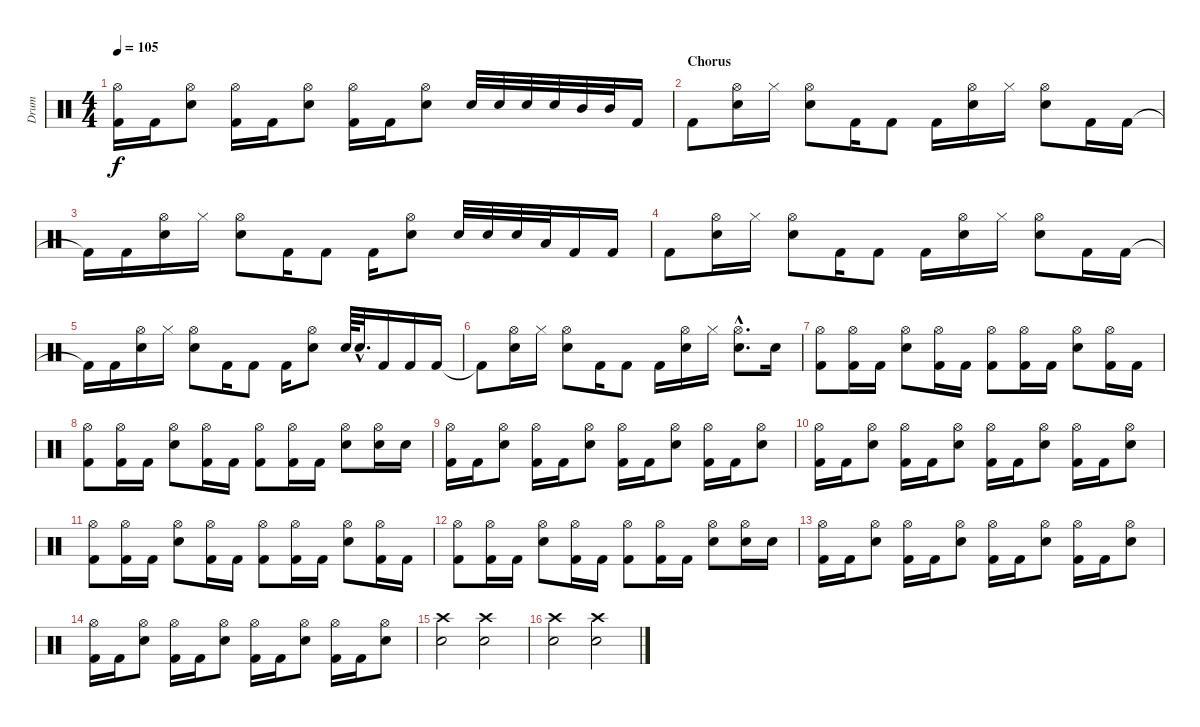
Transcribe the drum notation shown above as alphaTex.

\track ("Drum" "Drum") {instrument percussion}
\staff {score}
\articulation defaults
\ts (4 4)
\tempo 105
\clef neutral
\ks c
("Hi-Hat (open)" "Kick (hit) 2").16{dy f} "Kick (hit) 2".16 ("Hi-Hat (open)" "Electric Snare (hit)").8 ("Hi-Hat (open)" "Kick (hit) 2").16 "Kick (hit) 2".16 ("Hi-Hat (open)" "Electric Snare (hit)").8 ("Hi-Hat (open)" "Kick (hit) 2").16 "Kick (hit) 2".16 ("Hi-Hat (open)" "Electric Snare (hit)").8 "Electric Snare (hit)".32 "Electric Snare (hit)".32 "Electric Snare (hit)".32 "Electric Snare (hit)".32 "Mid Tom (hit)".32 "Mid Tom (hit)".32 "Kick (hit) 2".16 |
\section ("" "Chorus")
"Kick (hit) 2".8 ("Hi-Hat (open)" "Electric Snare (hit)").16 "Hi-Hat (closed)".16 ("Hi-Hat (open)" "Electric Snare (hit)").8 "Kick (hit) 2".16 "Kick (hit) 2".8 "Kick (hit) 2".16 ("Hi-Hat (open)" "Electric Snare (hit)").16 "Hi-Hat (closed)".16 ("Hi-Hat (open)" "Electric Snare (hit)").8 "Kick (hit) 2".16 "Kick (hit) 2".16 |
"Kick (hit) 2"{t}.16 "Kick (hit) 2".16 ("Hi-Hat (open)" "Electric Snare (hit)").16 "Hi-Hat (closed)".16 ("Hi-Hat (open)" "Electric Snare (hit)").8 "Kick (hit) 2".16 "Kick (hit) 2".8 "Kick (hit) 2".16 ("Hi-Hat (open)" "Electric Snare (hit)").8 "Electric Snare (hit)".32 "Electric Snare (hit)".32 "Electric Snare (hit)".32 "Low Tom (hit)".32 "Kick (hit) 2".16 "Kick (hit) 2".16 |
"Kick (hit) 2".8 ("Hi-Hat (open)" "Electric Snare (hit)").16 "Hi-Hat (closed)".16 ("Hi-Hat (open)" "Electric Snare (hit)").8 "Kick (hit) 2".16 "Kick (hit) 2".8 "Kick (hit) 2".16 ("Hi-Hat (open)" "Electric Snare (hit)").16 "Hi-Hat (closed)".16 ("Hi-Hat (open)" "Electric Snare (hit)").8 "Kick (hit) 2".16 "Kick (hit) 2".16 |
"Kick (hit) 2"{t}.16 "Kick (hit) 2".16 ("Hi-Hat (open)" "Electric Snare (hit)").16 "Hi-Hat (closed)".16 ("Hi-Hat (open)" "Electric Snare (hit)").8 "Kick (hit) 2".16 "Kick (hit) 2".8 "Kick (hit) 2".16 ("Hi-Hat (open)" "Electric Snare (hit)").8 "Electric Snare (hit)".64 "Electric Snare (hit)"{hac}.32{d} "Kick (hit) 2".16 "Kick (hit) 2".16 "Kick (hit) 2".16 |
"Kick (hit) 2"{t}.8 ("Hi-Hat (open)" "Electric Snare (hit)").16 "Hi-Hat (closed)".16 ("Hi-Hat (open)" "Electric Snare (hit)").8 "Kick (hit) 2".16 "Kick (hit) 2".8 "Kick (hit) 2".16 ("Hi-Hat (open)" "Electric Snare (hit)").16 "Hi-Hat (closed)".16 ("Hi-Hat (open)"{hac} "Electric Snare (hit)"{hac}).8{d} "Electric Snare (hit)".16 |
("Hi-Hat (open)" "Kick (hit) 2").8 ("Hi-Hat (open)" "Kick (hit) 2").16 "Kick (hit) 2".16 ("Hi-Hat (open)" "Electric Snare (hit)").8 ("Hi-Hat (open)" "Kick (hit) 2").16 "Kick (hit) 2".16 ("Hi-Hat (open)" "Kick (hit) 2").8 ("Hi-Hat (open)" "Kick (hit) 2").16 "Kick (hit) 2".16 ("Hi-Hat (open)" "Electric Snare (hit)").8 ("Hi-Hat (open)" "Kick (hit) 2").16 "Kick (hit) 2".16 |
("Hi-Hat (open)" "Kick (hit) 2").8 ("Hi-Hat (open)" "Kick (hit) 2").16 "Kick (hit) 2".16 ("Hi-Hat (open)" "Electric Snare (hit)").8 ("Hi-Hat (open)" "Kick (hit) 2").16 "Kick (hit) 2".16 ("Hi-Hat (open)" "Kick (hit) 2").8 ("Hi-Hat (open)" "Kick (hit) 2").16 "Kick (hit) 2".16 ("Hi-Hat (open)" "Electric Snare (hit)").8 ("Hi-Hat (open)" "Electric Snare (hit)").16 "Electric Snare (hit)".16 |
("Hi-Hat (open)" "Kick (hit) 2").16 "Kick (hit) 2".16 ("Hi-Hat (open)" "Electric Snare (hit)").8 ("Hi-Hat (open)" "Kick (hit) 2").16 "Kick (hit) 2".16 ("Hi-Hat (open)" "Electric Snare (hit)").8 ("Hi-Hat (open)" "Kick (hit) 2").16 "Kick (hit) 2".16 ("Hi-Hat (open)" "Electric Snare (hit)").8 ("Hi-Hat (open)" "Kick (hit) 2").16 "Kick (hit) 2".16 ("Hi-Hat (open)" "Electric Snare (hit)").8 |
("Hi-Hat (open)" "Kick (hit) 2").16 "Kick (hit) 2".16 ("Hi-Hat (open)" "Electric Snare (hit)").8 ("Hi-Hat (open)" "Kick (hit) 2").16 "Kick (hit) 2".16 ("Hi-Hat (open)" "Electric Snare (hit)").8 ("Hi-Hat (open)" "Kick (hit) 2").16 "Kick (hit) 2".16 ("Hi-Hat (open)" "Electric Snare (hit)").8 ("Hi-Hat (open)" "Kick (hit) 2").16 "Kick (hit) 2".16 ("Hi-Hat (open)" "Electric Snare (hit)").8 |
("Hi-Hat (open)" "Kick (hit) 2").8 ("Hi-Hat (open)" "Kick (hit) 2").16 "Kick (hit) 2".16 ("Hi-Hat (open)" "Electric Snare (hit)").8 ("Hi-Hat (open)" "Kick (hit) 2").16 "Kick (hit) 2".16 ("Hi-Hat (open)" "Kick (hit) 2").8 ("Hi-Hat (open)" "Kick (hit) 2").16 "Kick (hit) 2".16 ("Hi-Hat (open)" "Electric Snare (hit)").8 ("Hi-Hat (open)" "Kick (hit) 2").16 "Kick (hit) 2".16 |
("Hi-Hat (open)" "Kick (hit) 2").8 ("Hi-Hat (open)" "Kick (hit) 2").16 "Kick (hit) 2".16 ("Hi-Hat (open)" "Electric Snare (hit)").8 ("Hi-Hat (open)" "Kick (hit) 2").16 "Kick (hit) 2".16 ("Hi-Hat (open)" "Kick (hit) 2").8 ("Hi-Hat (open)" "Kick (hit) 2").16 "Kick (hit) 2".16 ("Hi-Hat (open)" "Electric Snare (hit)").8 ("Hi-Hat (open)" "Electric Snare (hit)").16 "Electric Snare (hit)".16 |
("Hi-Hat (open)" "Kick (hit) 2").16 "Kick (hit) 2".16 ("Hi-Hat (open)" "Electric Snare (hit)").8 ("Hi-Hat (open)" "Kick (hit) 2").16 "Kick (hit) 2".16 ("Hi-Hat (open)" "Electric Snare (hit)").8 ("Hi-Hat (open)" "Kick (hit) 2").16 "Kick (hit) 2".16 ("Hi-Hat (open)" "Electric Snare (hit)").8 ("Hi-Hat (open)" "Kick (hit) 2").16 "Kick (hit) 2".16 ("Hi-Hat (open)" "Electric Snare (hit)").8 |
("Hi-Hat (open)" "Kick (hit) 2").16 "Kick (hit) 2".16 ("Hi-Hat (open)" "Electric Snare (hit)").8 ("Hi-Hat (open)" "Kick (hit) 2").16 "Kick (hit) 2".16 ("Hi-Hat (open)" "Electric Snare (hit)").8 ("Hi-Hat (open)" "Kick (hit) 2").16 "Kick (hit) 2".16 ("Hi-Hat (open)" "Electric Snare (hit)").8 ("Hi-Hat (open)" "Kick (hit) 2").16 "Kick (hit) 2".16 ("Hi-Hat (open)" "Electric Snare (hit)").8 |
("Crash high (hit)" "Electric Snare (hit)").2 ("Crash high (hit)" "Electric Snare (hit)").2 |
("Crash high (hit)" "Electric Snare (hit)").2 ("Crash high (hit)" "Electric Snare (hit)").2
